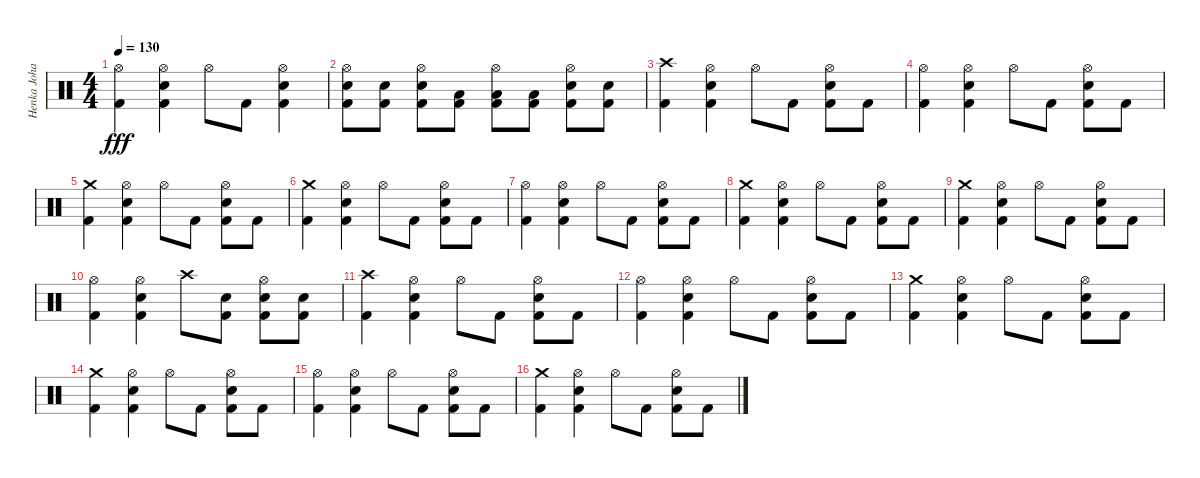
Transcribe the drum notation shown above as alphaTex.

\track ("Henka Johansson" "Henka Joha") {instrument percussion}
\staff {score}
\articulation defaults
\ts (4 4)
\tempo 130
\clef neutral
\ks c
("Hi-Hat (open)" "Kick (hit) 2").4{dy fff} ("Hi-Hat (open)" "Electric Snare (hit)" "Kick (hit) 2").4 "Hi-Hat (open)".8 "Kick (hit) 2".8 ("Hi-Hat (open)" "Electric Snare (hit)" "Kick (hit) 2").4 |
("Hi-Hat (open)" "Electric Snare (hit)" "Kick (hit) 2").8 ("Electric Snare (hit)" "Kick (hit) 2").8 ("Hi-Hat (open)" "Electric Snare (hit)" "Kick (hit) 2").8 ("Low Tom (hit)" "Kick (hit) 2").8 ("Hi-Hat (open)" "Low Tom (hit)" "Kick (hit) 2").8 ("Low Tom (hit)" "Kick (hit) 2").8 ("Hi-Hat (open)" "Electric Snare (hit)" "Kick (hit) 2").8 ("Electric Snare (hit)" "Kick (hit) 2").8 |
("Crash high (hit)" "Kick (hit) 2").4 ("Hi-Hat (open)" "Electric Snare (hit)" "Kick (hit) 2").4 "Hi-Hat (open)".8 "Kick (hit) 2".8 ("Hi-Hat (open)" "Electric Snare (hit)" "Kick (hit) 2").8 "Kick (hit) 2".8 |
("Hi-Hat (open)" "Kick (hit) 2").4 ("Hi-Hat (open)" "Electric Snare (hit)" "Kick (hit) 2").4 "Hi-Hat (open)".8 "Kick (hit) 2".8 ("Hi-Hat (open)" "Electric Snare (hit)" "Kick (hit) 2").8 "Kick (hit) 2".8 |
("Crash medium (hit)" "Kick (hit) 2").4 ("Hi-Hat (open)" "Electric Snare (hit)" "Kick (hit) 2").4 "Hi-Hat (open)".8 "Kick (hit) 2".8 ("Hi-Hat (open)" "Electric Snare (hit)" "Kick (hit) 2").8 "Kick (hit) 2".8 |
("Crash medium (hit)" "Kick (hit) 2").4 ("Hi-Hat (open)" "Electric Snare (hit)" "Kick (hit) 2").4 "Hi-Hat (open)".8 "Kick (hit) 2".8 ("Hi-Hat (open)" "Electric Snare (hit)" "Kick (hit) 2").8 "Kick (hit) 2".8 |
("Hi-Hat (open)" "Kick (hit) 2").4 ("Hi-Hat (open)" "Electric Snare (hit)" "Kick (hit) 2").4 "Hi-Hat (open)".8 "Kick (hit) 2".8 ("Hi-Hat (open)" "Electric Snare (hit)" "Kick (hit) 2").8 "Kick (hit) 2".8 |
("Crash medium (hit)" "Kick (hit) 2").4 ("Hi-Hat (open)" "Electric Snare (hit)" "Kick (hit) 2").4 "Hi-Hat (open)".8 "Kick (hit) 2".8 ("Hi-Hat (open)" "Electric Snare (hit)" "Kick (hit) 2").8 "Kick (hit) 2".8 |
("Crash medium (hit)" "Kick (hit) 2").4 ("Hi-Hat (open)" "Electric Snare (hit)" "Kick (hit) 2").4 "Hi-Hat (open)".8 "Kick (hit) 2".8 ("Hi-Hat (open)" "Electric Snare (hit)" "Kick (hit) 2").8 "Kick (hit) 2".8 |
("Hi-Hat (open)" "Kick (hit) 2").4 ("Hi-Hat (open)" "Electric Snare (hit)" "Kick (hit) 2").4 "Crash high (hit)".8 ("Electric Snare (hit)" "Kick (hit) 2").8 ("Hi-Hat (open)" "Electric Snare (hit)" "Kick (hit) 2").8 ("Electric Snare (hit)" "Kick (hit) 2").8 |
("Crash high (hit)" "Kick (hit) 2").4 ("Hi-Hat (open)" "Electric Snare (hit)" "Kick (hit) 2").4 "Hi-Hat (open)".8 "Kick (hit) 2".8 ("Hi-Hat (open)" "Electric Snare (hit)" "Kick (hit) 2").8 "Kick (hit) 2".8 |
("Hi-Hat (open)" "Kick (hit) 2").4 ("Hi-Hat (open)" "Electric Snare (hit)" "Kick (hit) 2").4 "Hi-Hat (open)".8 "Kick (hit) 2".8 ("Hi-Hat (open)" "Electric Snare (hit)" "Kick (hit) 2").8 "Kick (hit) 2".8 |
("Crash medium (hit)" "Kick (hit) 2").4 ("Hi-Hat (open)" "Electric Snare (hit)" "Kick (hit) 2").4 "Hi-Hat (open)".8 "Kick (hit) 2".8 ("Hi-Hat (open)" "Electric Snare (hit)" "Kick (hit) 2").8 "Kick (hit) 2".8 |
("Crash medium (hit)" "Kick (hit) 2").4 ("Hi-Hat (open)" "Electric Snare (hit)" "Kick (hit) 2").4 "Hi-Hat (open)".8 "Kick (hit) 2".8 ("Hi-Hat (open)" "Electric Snare (hit)" "Kick (hit) 2").8 "Kick (hit) 2".8 |
("Hi-Hat (open)" "Kick (hit) 2").4 ("Hi-Hat (open)" "Electric Snare (hit)" "Kick (hit) 2").4 "Hi-Hat (open)".8 "Kick (hit) 2".8 ("Hi-Hat (open)" "Electric Snare (hit)" "Kick (hit) 2").8 "Kick (hit) 2".8 |
("Crash medium (hit)" "Kick (hit) 2").4 ("Hi-Hat (open)" "Electric Snare (hit)" "Kick (hit) 2").4 "Hi-Hat (open)".8 "Kick (hit) 2".8 ("Hi-Hat (open)" "Electric Snare (hit)" "Kick (hit) 2").8 "Kick (hit) 2".8
